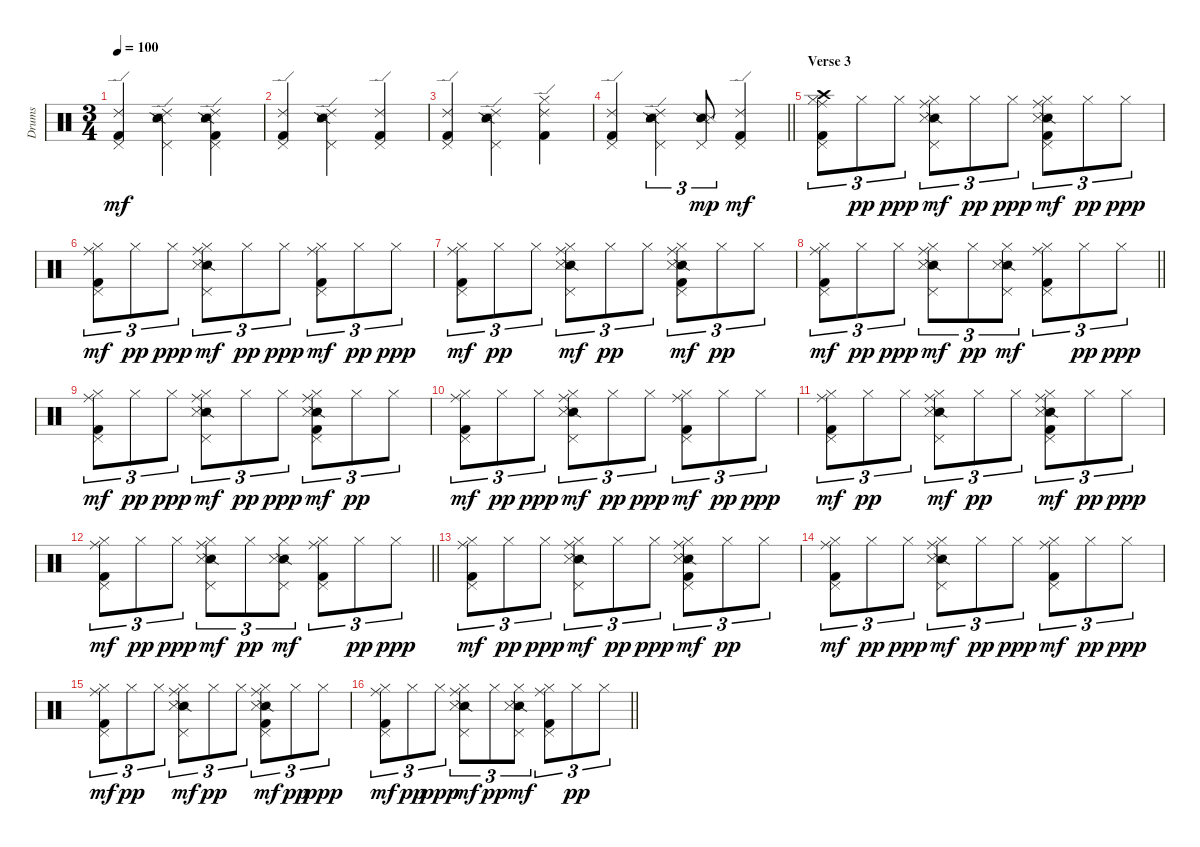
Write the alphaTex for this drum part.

\track ("Drums" "Drums") {instrument percussion}
\staff {score}
\articulation defaults
\ts (3 4)
\tempo 100
\clef neutral
\ks c
("Ride (edge) 2" "Pedal Hi-Hat (hit)" "Kick (hit) 2").4{dy mf} ("Ride (edge) 2" "Pedal Hi-Hat (hit)" "Snare (side stick) 2" "Snare (side stick) 3").4 ("Ride (edge) 2" "Pedal Hi-Hat (hit)" "Snare (side stick) 2" "Snare (side stick) 3" "Kick (hit) 2").4 |
("Ride (edge) 2" "Pedal Hi-Hat (hit)" "Kick (hit) 2").4 ("Ride (edge) 2" "Pedal Hi-Hat (hit)" "Snare (side stick) 2" "Snare (side stick) 3").4 ("Ride (edge) 2" "Pedal Hi-Hat (hit)" "Kick (hit) 2").4 |
("Ride (edge) 2" "Pedal Hi-Hat (hit)" "Kick (hit) 2").4 ("Ride (edge) 2" "Pedal Hi-Hat (hit)" "Snare (side stick) 2" "Snare (side stick) 3").4 ("Ride (edge) 2" "Hi-Hat (closed)" "Kick (hit) 2").4 |
\barLineRight lightlight
("Ride (edge) 2" "Pedal Hi-Hat (hit)" "Kick (hit) 2").4 ("Ride (edge) 2" "Pedal Hi-Hat (hit)" "Snare (side stick) 2" "Snare (side stick) 3").4{tu (3 2)} ("Pedal Hi-Hat (hit)" "Snare (side stick) 2" "Snare (side stick) 3").8{tu (3 2) dy mp} ("Ride (edge) 2" "Pedal Hi-Hat (hit)" "Kick (hit) 2").4{dy mf} |
\section ("" "Verse 3")
("Hi-Hat (closed)" "Ride (middle)" "Pedal Hi-Hat (hit)" "Crash high (hit)" "Kick (hit) 2").8{tu (3 2)} "Hi-Hat (closed)".8{tu (3 2) dy pp} "Hi-Hat (closed)".8{tu (3 2) dy ppp} ("Hi-Hat (closed)" "Ride (middle)" "Pedal Hi-Hat (hit)" "Snare (side stick) 2" "Snare (side stick) 3").8{tu (3 2) dy mf} "Hi-Hat (closed)".8{tu (3 2) dy pp} "Hi-Hat (closed)".8{tu (3 2) dy ppp} ("Hi-Hat (closed)" "Ride (middle)" "Pedal Hi-Hat (hit)" "Snare (side stick) 2" "Snare (side stick) 3" "Kick (hit) 2").8{tu (3 2) dy mf} "Hi-Hat (closed)".8{tu (3 2) dy pp} "Hi-Hat (closed)".8{tu (3 2) dy ppp} |
("Hi-Hat (closed)" "Ride (middle)" "Pedal Hi-Hat (hit)" "Kick (hit) 2").8{tu (3 2) dy mf} "Hi-Hat (closed)".8{tu (3 2) dy pp} "Hi-Hat (closed)".8{tu (3 2) dy ppp} ("Hi-Hat (closed)" "Ride (middle)" "Pedal Hi-Hat (hit)" "Snare (side stick) 2" "Snare (side stick) 3").8{tu (3 2) dy mf} "Hi-Hat (closed)".8{tu (3 2) dy pp} "Hi-Hat (closed)".8{tu (3 2) dy ppp} ("Hi-Hat (closed)" "Ride (middle)" "Pedal Hi-Hat (hit)" "Kick (hit) 2").8{tu (3 2) dy mf} "Hi-Hat (closed)".8{tu (3 2) dy pp} "Hi-Hat (closed)".8{tu (3 2) dy ppp} |
("Hi-Hat (closed)" "Ride (middle)" "Pedal Hi-Hat (hit)" "Kick (hit) 2").8{tu (3 2) dy mf} "Hi-Hat (closed)".8{tu (3 2) dy pp} "Hi-Hat (closed)".8{tu (3 2)} ("Hi-Hat (closed)" "Ride (middle)" "Pedal Hi-Hat (hit)" "Snare (side stick) 2" "Snare (side stick) 3").8{tu (3 2) dy mf} "Hi-Hat (closed)".8{tu (3 2) dy pp} "Hi-Hat (closed)".8{tu (3 2)} ("Hi-Hat (closed)" "Ride (middle)" "Pedal Hi-Hat (hit)" "Snare (side stick) 2" "Snare (side stick) 3" "Kick (hit) 2").8{tu (3 2) dy mf} "Hi-Hat (closed)".8{tu (3 2) dy pp} "Hi-Hat (closed)".8{tu (3 2)} |
\barLineRight lightlight
("Hi-Hat (closed)" "Ride (middle)" "Pedal Hi-Hat (hit)" "Kick (hit) 2").8{tu (3 2) dy mf} "Hi-Hat (closed)".8{tu (3 2) dy pp} "Hi-Hat (closed)".8{tu (3 2) dy ppp} ("Hi-Hat (closed)" "Ride (middle)" "Pedal Hi-Hat (hit)" "Snare (side stick) 2" "Snare (side stick) 3").8{tu (3 2) dy mf} "Hi-Hat (closed)".8{tu (3 2) dy pp} ("Hi-Hat (closed)" "Pedal Hi-Hat (hit)" "Snare (side stick) 2" "Snare (side stick) 3").8{tu (3 2) dy mf} ("Hi-Hat (closed)" "Ride (middle)" "Pedal Hi-Hat (hit)" "Kick (hit) 2").8{tu (3 2)} "Hi-Hat (closed)".8{tu (3 2) dy pp} "Hi-Hat (closed)".8{tu (3 2) dy ppp} |
("Hi-Hat (closed)" "Ride (middle)" "Pedal Hi-Hat (hit)" "Kick (hit) 2").8{tu (3 2) dy mf} "Hi-Hat (closed)".8{tu (3 2) dy pp} "Hi-Hat (closed)".8{tu (3 2) dy ppp} ("Hi-Hat (closed)" "Ride (middle)" "Pedal Hi-Hat (hit)" "Snare (side stick) 2" "Snare (side stick) 3").8{tu (3 2) dy mf} "Hi-Hat (closed)".8{tu (3 2) dy pp} "Hi-Hat (closed)".8{tu (3 2) dy ppp} ("Hi-Hat (closed)" "Ride (middle)" "Pedal Hi-Hat (hit)" "Snare (side stick) 2" "Snare (side stick) 3" "Kick (hit) 2").8{tu (3 2) dy mf} "Hi-Hat (closed)".8{tu (3 2) dy pp} "Hi-Hat (closed)".8{tu (3 2)} |
("Hi-Hat (closed)" "Ride (middle)" "Pedal Hi-Hat (hit)" "Kick (hit) 2").8{tu (3 2) dy mf} "Hi-Hat (closed)".8{tu (3 2) dy pp} "Hi-Hat (closed)".8{tu (3 2) dy ppp} ("Hi-Hat (closed)" "Ride (middle)" "Pedal Hi-Hat (hit)" "Snare (side stick) 2" "Snare (side stick) 3").8{tu (3 2) dy mf} "Hi-Hat (closed)".8{tu (3 2) dy pp} "Hi-Hat (closed)".8{tu (3 2) dy ppp} ("Hi-Hat (closed)" "Ride (middle)" "Pedal Hi-Hat (hit)" "Kick (hit) 2").8{tu (3 2) dy mf} "Hi-Hat (closed)".8{tu (3 2) dy pp} "Hi-Hat (closed)".8{tu (3 2) dy ppp} |
("Hi-Hat (closed)" "Ride (middle)" "Pedal Hi-Hat (hit)" "Kick (hit) 2").8{tu (3 2) dy mf} "Hi-Hat (closed)".8{tu (3 2) dy pp} "Hi-Hat (closed)".8{tu (3 2)} ("Hi-Hat (closed)" "Ride (middle)" "Pedal Hi-Hat (hit)" "Snare (side stick) 2" "Snare (side stick) 3").8{tu (3 2) dy mf} "Hi-Hat (closed)".8{tu (3 2) dy pp} "Hi-Hat (closed)".8{tu (3 2)} ("Hi-Hat (closed)" "Ride (middle)" "Pedal Hi-Hat (hit)" "Snare (side stick) 2" "Snare (side stick) 3" "Kick (hit) 2").8{tu (3 2) dy mf} "Hi-Hat (closed)".8{tu (3 2) dy pp} "Hi-Hat (closed)".8{tu (3 2) dy ppp} |
\barLineRight lightlight
("Hi-Hat (closed)" "Ride (middle)" "Pedal Hi-Hat (hit)" "Kick (hit) 2").8{tu (3 2) dy mf} "Hi-Hat (closed)".8{tu (3 2) dy pp} "Hi-Hat (closed)".8{tu (3 2) dy ppp} ("Hi-Hat (closed)" "Ride (middle)" "Pedal Hi-Hat (hit)" "Snare (side stick) 2" "Snare (side stick) 3").8{tu (3 2) dy mf} "Hi-Hat (closed)".8{tu (3 2) dy pp} ("Hi-Hat (closed)" "Pedal Hi-Hat (hit)" "Snare (side stick) 2" "Snare (side stick) 3").8{tu (3 2) dy mf} ("Hi-Hat (closed)" "Ride (middle)" "Pedal Hi-Hat (hit)" "Kick (hit) 2").8{tu (3 2)} "Hi-Hat (closed)".8{tu (3 2) dy pp} "Hi-Hat (closed)".8{tu (3 2) dy ppp} |
("Hi-Hat (closed)" "Ride (middle)" "Pedal Hi-Hat (hit)" "Kick (hit) 2").8{tu (3 2) dy mf} "Hi-Hat (closed)".8{tu (3 2) dy pp} "Hi-Hat (closed)".8{tu (3 2) dy ppp} ("Hi-Hat (closed)" "Ride (middle)" "Pedal Hi-Hat (hit)" "Snare (side stick) 2" "Snare (side stick) 3").8{tu (3 2) dy mf} "Hi-Hat (closed)".8{tu (3 2) dy pp} "Hi-Hat (closed)".8{tu (3 2) dy ppp} ("Hi-Hat (closed)" "Ride (middle)" "Pedal Hi-Hat (hit)" "Snare (side stick) 2" "Snare (side stick) 3" "Kick (hit) 2").8{tu (3 2) dy mf} "Hi-Hat (closed)".8{tu (3 2) dy pp} "Hi-Hat (closed)".8{tu (3 2)} |
("Hi-Hat (closed)" "Ride (middle)" "Pedal Hi-Hat (hit)" "Kick (hit) 2").8{tu (3 2) dy mf} "Hi-Hat (closed)".8{tu (3 2) dy pp} "Hi-Hat (closed)".8{tu (3 2) dy ppp} ("Hi-Hat (closed)" "Ride (middle)" "Pedal Hi-Hat (hit)" "Snare (side stick) 2" "Snare (side stick) 3").8{tu (3 2) dy mf} "Hi-Hat (closed)".8{tu (3 2) dy pp} "Hi-Hat (closed)".8{tu (3 2) dy ppp} ("Hi-Hat (closed)" "Ride (middle)" "Pedal Hi-Hat (hit)" "Kick (hit) 2").8{tu (3 2) dy mf} "Hi-Hat (closed)".8{tu (3 2) dy pp} "Hi-Hat (closed)".8{tu (3 2) dy ppp} |
("Hi-Hat (closed)" "Ride (middle)" "Pedal Hi-Hat (hit)" "Kick (hit) 2").8{tu (3 2) dy mf} "Hi-Hat (closed)".8{tu (3 2) dy pp} "Hi-Hat (closed)".8{tu (3 2)} ("Hi-Hat (closed)" "Ride (middle)" "Pedal Hi-Hat (hit)" "Snare (side stick) 2" "Snare (side stick) 3").8{tu (3 2) dy mf} "Hi-Hat (closed)".8{tu (3 2) dy pp} "Hi-Hat (closed)".8{tu (3 2)} ("Hi-Hat (closed)" "Ride (middle)" "Pedal Hi-Hat (hit)" "Snare (side stick) 2" "Snare (side stick) 3" "Kick (hit) 2").8{tu (3 2) dy mf} "Hi-Hat (closed)".8{tu (3 2) dy pp} "Hi-Hat (closed)".8{tu (3 2) dy ppp} |
\barLineRight lightlight
("Hi-Hat (closed)" "Ride (middle)" "Pedal Hi-Hat (hit)" "Kick (hit) 2").8{tu (3 2) dy mf} "Hi-Hat (closed)".8{tu (3 2) dy pp} "Hi-Hat (closed)".8{tu (3 2) dy ppp} ("Hi-Hat (closed)" "Ride (middle)" "Pedal Hi-Hat (hit)" "Snare (side stick) 2" "Snare (side stick) 3").8{tu (3 2) dy mf} "Hi-Hat (closed)".8{tu (3 2) dy pp} ("Hi-Hat (closed)" "Pedal Hi-Hat (hit)" "Snare (side stick) 2" "Snare (side stick) 3").8{tu (3 2) dy mf} ("Hi-Hat (closed)" "Ride (middle)" "Pedal Hi-Hat (hit)" "Kick (hit) 2").8{tu (3 2)} "Hi-Hat (closed)".8{tu (3 2) dy pp} "Hi-Hat (closed)".8{tu (3 2)}
